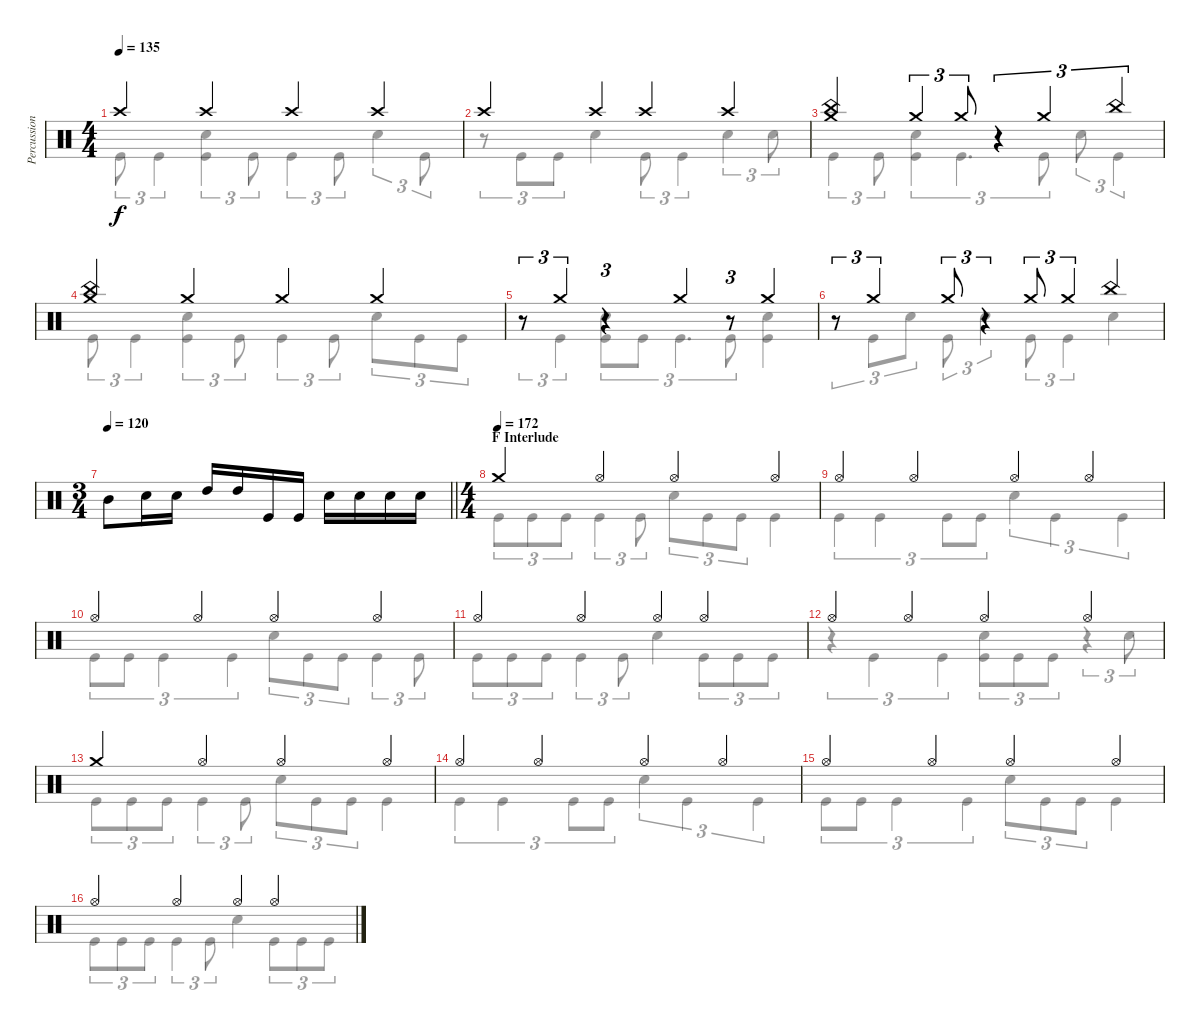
\track ("Percussions" "Percussion") {instrument percussion}
\staff {score}
\articulation defaults
\voice
\ts (4 4)
\tempo 135
\clef neutral
\ks c "Crash high (hit)".4{dy f} "Crash high (hit)".4 "Crash high (hit)".4 "Crash high (hit)".4
|
"Crash high (hit)".4 "Crash high (hit)".4 "Crash high (hit)".4 "Crash high (hit)".4 |
("Crash medium (hit)" "China (hit)").4 "Crash medium (hit)".4{tu (3 2)} "Crash medium (hit)".8{tu (3 2)} r.4{tu (3 2)} "Crash medium (hit)".4{tu (3 2)} "China (hit)".4{tu (3 2)} |
("Crash medium (hit)" "China (hit)").4 "Crash medium (hit)".4 "Crash medium (hit)".4 "Crash medium (hit)".4 |
r.8{tu (3 2)} "Crash medium (hit)".4{tu (3 2)} r.4{tu (3 2)} "Crash medium (hit)".4 r.8{tu (3 2)} "Crash medium (hit)".4 |
r.8{tu (3 2)} "Crash medium (hit)".4{tu (3 2)} "Crash medium (hit)".8{tu (3 2)} r.4{tu (3 2)} "Crash medium (hit)".8{tu (3 2)} "Crash medium (hit)".4{tu (3 2)} "China (hit)".4 |
\ts (3 4)
\tempo 120
\barLineRight lightlight "Mid Tom (hit)".8 "Snare (hit) 2".16 "Snare (hit) 2".16 "High Tom (hit)".16 "High Tom (hit)".16 "Kick (hit)".16 "Kick (hit)".16 "Snare (hit) 2".16 "Snare (hit) 2".16 "Snare (hit) 2".16 "Snare (hit) 2".16
|
\ts (4 4)
\section ("" "F Interlude")
\tempo (172)
"Crash medium (hit)".4 "Hi-Hat (open)".4 "Hi-Hat (open)".4 "Hi-Hat (open)".4 |
"Hi-Hat (open)".4 "Hi-Hat (open)".4 "Hi-Hat (open)".4 "Hi-Hat (open)".4 |
"Hi-Hat (open)".4 "Hi-Hat (open)".4 "Hi-Hat (open)".4 "Hi-Hat (open)".4 |
"Hi-Hat (open)".4 "Hi-Hat (open)".4 "Hi-Hat (open)".4 "Hi-Hat (open)".4 |
"Hi-Hat (open)".4 "Hi-Hat (open)".4 "Hi-Hat (open)".4 "Hi-Hat (open)".4 |
"Crash medium (hit)".4 "Hi-Hat (open)".4 "Hi-Hat (open)".4 "Hi-Hat (open)".4 |
"Hi-Hat (open)".4 "Hi-Hat (open)".4 "Hi-Hat (open)".4 "Hi-Hat (open)".4 |
"Hi-Hat (open)".4 "Hi-Hat (open)".4 "Hi-Hat (open)".4 "Hi-Hat (open)".4 |
"Hi-Hat (open)".4 "Hi-Hat (open)".4 "Hi-Hat (open)".4 "Hi-Hat (open)".4
\voice
\clef neutral
\ottava regular
\simile none
\ks c "Kick (hit)".8{tu (3 2) dy f} "Kick (hit)".4{tu (3 2)}
("Snare (hit) 2" "Kick (hit)").4{tu (3 2)} "Kick (hit)".8{tu (3 2)} "Kick (hit)".4{tu (3 2)} "Kick (hit)".8{tu (3 2)} "Snare (hit) 2".4{tu (3 2)} "Kick (hit)".8{tu (3 2)} |
r.8{tu (3 2)} "Kick (hit)".8{tu (3 2)} "Kick (hit)".8{tu (3 2)} "Snare (hit) 2".4 "Kick (hit)".8{tu (3 2)} "Kick (hit)".4{tu (3 2)} "Snare (hit) 2".4{tu (3 2)} "Snare (hit) 2".8{tu (3 2)} |
"Kick (hit)".4{tu (3 2)} "Kick (hit)".8{tu (3 2)} ("Snare (hit) 2" "Kick (hit)").4{tu (3 2)} "Kick (hit)".4{d tu (3 2)} "Kick (hit)".8{tu (3 2)} "Snare (hit) 2".8{tu (3 2)} "Kick (hit)".4{tu (3 2)} |
"Kick (hit)".8{tu (3 2)} "Kick (hit)".4{tu (3 2)} ("Snare (hit) 2" "Kick (hit)").4{tu (3 2)} "Kick (hit)".8{tu (3 2)} "Kick (hit)".4{tu (3 2)} "Kick (hit)".8{tu (3 2)} "Snare (hit) 2".8{tu (3 2)} "Kick (hit)".8{tu (3 2)} "Kick (hit)".8{tu (3 2)} |
r.8{tu (3 2)} "Kick (hit)".4{tu (3 2)} ("Snare (hit) 2" "Kick (hit)").8{tu (3 2)} "Kick (hit)".8{tu (3 2)} "Kick (hit)".4{d tu (3 2)} "Kick (hit)".8{tu (3 2)} ("Snare (hit) 2" "Kick (hit)").4 |
r.8{tu (3 2)} "Kick (hit)".8{tu (3 2)} "Snare (hit) 2".8{tu (3 2)} "Kick (hit)".8{tu (3 2)} "Snare (hit) 2".4{tu (3 2)} "Kick (hit)".8{tu (3 2)} "Kick (hit)".4{tu (3 2)} "Snare (hit) 2".4 |
\barLineRight lightlight
|
"Kick (hit)".8{tu (3 2)} "Kick (hit)".8{tu (3 2)} "Kick (hit)".8{tu (3 2)} "Kick (hit)".4{tu (3 2)} "Kick (hit)".8{tu (3 2)} "Snare (hit) 2".8{tu (3 2)} "Kick (hit)".8{tu (3 2)} "Kick (hit)".8{tu (3 2)} "Kick (hit)".4 |
"Kick (hit)".4{tu (3 2)} "Kick (hit)".4{tu (3 2)} "Kick (hit)".8{tu (3 2)} "Kick (hit)".8{tu (3 2)} "Snare (hit) 2".4{tu (3 2)} "Kick (hit)".4{tu (3 2)} "Kick (hit)".4{tu (3 2)} |
"Kick (hit)".8{tu (3 2)} "Kick (hit)".8{tu (3 2)} "Kick (hit)".4{tu (3 2)} "Kick (hit)".4{tu (3 2)} "Snare (hit) 2".8{tu (3 2)} "Kick (hit)".8{tu (3 2)} "Kick (hit)".8{tu (3 2)} "Kick (hit)".4{tu (3 2)} "Kick (hit)".8{tu (3 2)} |
"Kick (hit)".8{tu (3 2)} "Kick (hit)".8{tu (3 2)} "Kick (hit)".8{tu (3 2)} "Kick (hit)".4{tu (3 2)} "Kick (hit)".8{tu (3 2)} "Snare (hit) 2".4 "Kick (hit)".8{tu (3 2)} "Kick (hit)".8{tu (3 2)} "Kick (hit)".8{tu (3 2)} |
r.4{tu (3 2)} "Kick (hit)".4{tu (3 2)} "Kick (hit)".4{tu (3 2)} ("Snare (hit) 2" "Kick (hit)").8{tu (3 2)} "Kick (hit)".8{tu (3 2)} "Kick (hit)".8{tu (3 2)} r.4{tu (3 2)} "Snare (hit) 2".8{tu (3 2)} |
"Kick (hit)".8{tu (3 2)} "Kick (hit)".8{tu (3 2)} "Kick (hit)".8{tu (3 2)} "Kick (hit)".4{tu (3 2)} "Kick (hit)".8{tu (3 2)} "Snare (hit) 2".8{tu (3 2)} "Kick (hit)".8{tu (3 2)} "Kick (hit)".8{tu (3 2)} "Kick (hit)".4 |
"Kick (hit)".4{tu (3 2)} "Kick (hit)".4{tu (3 2)} "Kick (hit)".8{tu (3 2)} "Kick (hit)".8{tu (3 2)} "Snare (hit) 2".4{tu (3 2)} "Kick (hit)".4{tu (3 2)} "Kick (hit)".4{tu (3 2)} |
"Kick (hit)".8{tu (3 2)} "Kick (hit)".8{tu (3 2)} "Kick (hit)".4{tu (3 2)} "Kick (hit)".4{tu (3 2)} "Snare (hit) 2".8{tu (3 2)} "Kick (hit)".8{tu (3 2)} "Kick (hit)".8{tu (3 2)} "Kick (hit)".4 |
"Kick (hit)".8{tu (3 2)} "Kick (hit)".8{tu (3 2)} "Kick (hit)".8{tu (3 2)} "Kick (hit)".4{tu (3 2)} "Kick (hit)".8{tu (3 2)} "Snare (hit) 2".4 "Kick (hit)".8{tu (3 2)} "Kick (hit)".8{tu (3 2)} "Kick (hit)".8{tu (3 2)}
